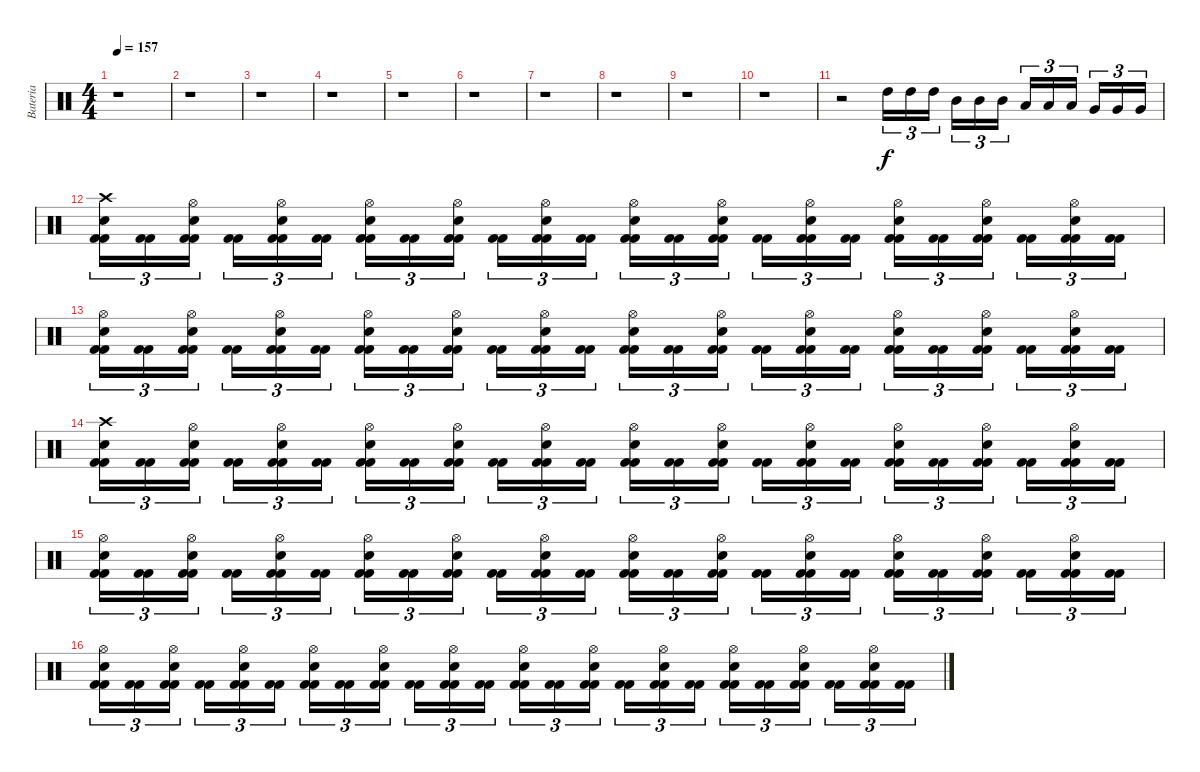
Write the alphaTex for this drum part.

\track ("Bateria" "Bateria") {instrument percussion}
\staff {score}
\articulation defaults
\ts (4 4)
\tempo 157
\clef neutral
\ks c
r.1{dy f} |
r.1 |
r.1 |
r.1 |
r.1 |
r.1 |
r.1 |
r.1 |
r.1 |
r.1 |
r.2 "High Tom (hit)".16{tu (3 2)} "High Tom (hit)".16{tu (3 2)} "High Tom (hit)".16{tu (3 2)} "Mid Tom (hit)".16{tu (3 2)} "Mid Tom (hit)".16{tu (3 2)} "Mid Tom (hit)".16{tu (3 2)} "Low Tom (hit)".16{tu (3 2)} "Low Tom (hit)".16{tu (3 2)} "Low Tom (hit)".16{tu (3 2)} "Very Low Tom (hit)".16{tu (3 2)} "Very Low Tom (hit)".16{tu (3 2)} "Very Low Tom (hit)".16{tu (3 2)} |
("Kick (hit) 2" "Kick (hit) 2" "Snare (hit) 2" "Crash high (hit)").16{tu (3 2)} ("Kick (hit) 2" "Kick (hit) 2").16{tu (3 2)} ("Kick (hit) 2" "Kick (hit) 2" "Snare (hit) 2" "Hi-Hat (open)").16{tu (3 2)} ("Kick (hit) 2" "Kick (hit) 2").16{tu (3 2)} ("Kick (hit) 2" "Kick (hit) 2" "Snare (hit) 2" "Hi-Hat (open)").16{tu (3 2)} ("Kick (hit) 2" "Kick (hit) 2").16{tu (3 2)} ("Kick (hit) 2" "Kick (hit) 2" "Snare (hit) 2" "Hi-Hat (open)").16{tu (3 2)} ("Kick (hit) 2" "Kick (hit) 2").16{tu (3 2)} ("Kick (hit) 2" "Kick (hit) 2" "Snare (hit) 2" "Hi-Hat (open)").16{tu (3 2)} ("Kick (hit) 2" "Kick (hit) 2").16{tu (3 2)} ("Kick (hit) 2" "Kick (hit) 2" "Snare (hit) 2" "Hi-Hat (open)").16{tu (3 2)} ("Kick (hit) 2" "Kick (hit) 2").16{tu (3 2)} ("Kick (hit) 2" "Kick (hit) 2" "Snare (hit) 2" "Hi-Hat (open)").16{tu (3 2)} ("Kick (hit) 2" "Kick (hit) 2").16{tu (3 2)} ("Kick (hit) 2" "Kick (hit) 2" "Snare (hit) 2" "Hi-Hat (open)").16{tu (3 2)} ("Kick (hit) 2" "Kick (hit) 2").16{tu (3 2)} ("Kick (hit) 2" "Kick (hit) 2" "Snare (hit) 2" "Hi-Hat (open)").16{tu (3 2)} ("Kick (hit) 2" "Kick (hit) 2").16{tu (3 2)} ("Kick (hit) 2" "Kick (hit) 2" "Snare (hit) 2" "Hi-Hat (open)").16{tu (3 2)} ("Kick (hit) 2" "Kick (hit) 2").16{tu (3 2)} ("Kick (hit) 2" "Kick (hit) 2" "Snare (hit) 2" "Hi-Hat (open)").16{tu (3 2)} ("Kick (hit) 2" "Kick (hit) 2").16{tu (3 2)} ("Kick (hit) 2" "Kick (hit) 2" "Snare (hit) 2" "Hi-Hat (open)").16{tu (3 2)} ("Kick (hit) 2" "Kick (hit) 2").16{tu (3 2)} |
("Kick (hit) 2" "Kick (hit) 2" "Snare (hit) 2" "Hi-Hat (open)").16{tu (3 2)} ("Kick (hit) 2" "Kick (hit) 2").16{tu (3 2)} ("Kick (hit) 2" "Kick (hit) 2" "Snare (hit) 2" "Hi-Hat (open)").16{tu (3 2)} ("Kick (hit) 2" "Kick (hit) 2").16{tu (3 2)} ("Kick (hit) 2" "Kick (hit) 2" "Snare (hit) 2" "Hi-Hat (open)").16{tu (3 2)} ("Kick (hit) 2" "Kick (hit) 2").16{tu (3 2)} ("Kick (hit) 2" "Kick (hit) 2" "Snare (hit) 2" "Hi-Hat (open)").16{tu (3 2)} ("Kick (hit) 2" "Kick (hit) 2").16{tu (3 2)} ("Kick (hit) 2" "Kick (hit) 2" "Snare (hit) 2" "Hi-Hat (open)").16{tu (3 2)} ("Kick (hit) 2" "Kick (hit) 2").16{tu (3 2)} ("Kick (hit) 2" "Kick (hit) 2" "Snare (hit) 2" "Hi-Hat (open)").16{tu (3 2)} ("Kick (hit) 2" "Kick (hit) 2").16{tu (3 2)} ("Kick (hit) 2" "Kick (hit) 2" "Snare (hit) 2" "Hi-Hat (open)").16{tu (3 2)} ("Kick (hit) 2" "Kick (hit) 2").16{tu (3 2)} ("Kick (hit) 2" "Kick (hit) 2" "Snare (hit) 2" "Hi-Hat (open)").16{tu (3 2)} ("Kick (hit) 2" "Kick (hit) 2").16{tu (3 2)} ("Kick (hit) 2" "Kick (hit) 2" "Snare (hit) 2" "Hi-Hat (open)").16{tu (3 2)} ("Kick (hit) 2" "Kick (hit) 2").16{tu (3 2)} ("Kick (hit) 2" "Kick (hit) 2" "Snare (hit) 2" "Hi-Hat (open)").16{tu (3 2)} ("Kick (hit) 2" "Kick (hit) 2").16{tu (3 2)} ("Kick (hit) 2" "Kick (hit) 2" "Snare (hit) 2" "Hi-Hat (open)").16{tu (3 2)} ("Kick (hit) 2" "Kick (hit) 2").16{tu (3 2)} ("Kick (hit) 2" "Kick (hit) 2" "Snare (hit) 2" "Hi-Hat (open)").16{tu (3 2)} ("Kick (hit) 2" "Kick (hit) 2").16{tu (3 2)} |
("Kick (hit) 2" "Kick (hit) 2" "Snare (hit) 2" "Crash high (hit)").16{tu (3 2)} ("Kick (hit) 2" "Kick (hit) 2").16{tu (3 2)} ("Kick (hit) 2" "Kick (hit) 2" "Snare (hit) 2" "Hi-Hat (open)").16{tu (3 2)} ("Kick (hit) 2" "Kick (hit) 2").16{tu (3 2)} ("Kick (hit) 2" "Kick (hit) 2" "Snare (hit) 2" "Hi-Hat (open)").16{tu (3 2)} ("Kick (hit) 2" "Kick (hit) 2").16{tu (3 2)} ("Kick (hit) 2" "Kick (hit) 2" "Snare (hit) 2" "Hi-Hat (open)").16{tu (3 2)} ("Kick (hit) 2" "Kick (hit) 2").16{tu (3 2)} ("Kick (hit) 2" "Kick (hit) 2" "Snare (hit) 2" "Hi-Hat (open)").16{tu (3 2)} ("Kick (hit) 2" "Kick (hit) 2").16{tu (3 2)} ("Kick (hit) 2" "Kick (hit) 2" "Snare (hit) 2" "Hi-Hat (open)").16{tu (3 2)} ("Kick (hit) 2" "Kick (hit) 2").16{tu (3 2)} ("Kick (hit) 2" "Kick (hit) 2" "Snare (hit) 2" "Hi-Hat (open)").16{tu (3 2)} ("Kick (hit) 2" "Kick (hit) 2").16{tu (3 2)} ("Kick (hit) 2" "Kick (hit) 2" "Snare (hit) 2" "Hi-Hat (open)").16{tu (3 2)} ("Kick (hit) 2" "Kick (hit) 2").16{tu (3 2)} ("Kick (hit) 2" "Kick (hit) 2" "Snare (hit) 2" "Hi-Hat (open)").16{tu (3 2)} ("Kick (hit) 2" "Kick (hit) 2").16{tu (3 2)} ("Kick (hit) 2" "Kick (hit) 2" "Snare (hit) 2" "Hi-Hat (open)").16{tu (3 2)} ("Kick (hit) 2" "Kick (hit) 2").16{tu (3 2)} ("Kick (hit) 2" "Kick (hit) 2" "Snare (hit) 2" "Hi-Hat (open)").16{tu (3 2)} ("Kick (hit) 2" "Kick (hit) 2").16{tu (3 2)} ("Kick (hit) 2" "Kick (hit) 2" "Snare (hit) 2" "Hi-Hat (open)").16{tu (3 2)} ("Kick (hit) 2" "Kick (hit) 2").16{tu (3 2)} |
("Kick (hit) 2" "Kick (hit) 2" "Snare (hit) 2" "Hi-Hat (open)").16{tu (3 2)} ("Kick (hit) 2" "Kick (hit) 2").16{tu (3 2)} ("Kick (hit) 2" "Kick (hit) 2" "Snare (hit) 2" "Hi-Hat (open)").16{tu (3 2)} ("Kick (hit) 2" "Kick (hit) 2").16{tu (3 2)} ("Kick (hit) 2" "Kick (hit) 2" "Snare (hit) 2" "Hi-Hat (open)").16{tu (3 2)} ("Kick (hit) 2" "Kick (hit) 2").16{tu (3 2)} ("Kick (hit) 2" "Kick (hit) 2" "Snare (hit) 2" "Hi-Hat (open)").16{tu (3 2)} ("Kick (hit) 2" "Kick (hit) 2").16{tu (3 2)} ("Kick (hit) 2" "Kick (hit) 2" "Snare (hit) 2" "Hi-Hat (open)").16{tu (3 2)} ("Kick (hit) 2" "Kick (hit) 2").16{tu (3 2)} ("Kick (hit) 2" "Kick (hit) 2" "Snare (hit) 2" "Hi-Hat (open)").16{tu (3 2)} ("Kick (hit) 2" "Kick (hit) 2").16{tu (3 2)} ("Kick (hit) 2" "Kick (hit) 2" "Snare (hit) 2" "Hi-Hat (open)").16{tu (3 2)} ("Kick (hit) 2" "Kick (hit) 2").16{tu (3 2)} ("Kick (hit) 2" "Kick (hit) 2" "Snare (hit) 2" "Hi-Hat (open)").16{tu (3 2)} ("Kick (hit) 2" "Kick (hit) 2").16{tu (3 2)} ("Kick (hit) 2" "Kick (hit) 2" "Snare (hit) 2" "Hi-Hat (open)").16{tu (3 2)} ("Kick (hit) 2" "Kick (hit) 2").16{tu (3 2)} ("Kick (hit) 2" "Kick (hit) 2" "Snare (hit) 2" "Hi-Hat (open)").16{tu (3 2)} ("Kick (hit) 2" "Kick (hit) 2").16{tu (3 2)} ("Kick (hit) 2" "Kick (hit) 2" "Snare (hit) 2" "Hi-Hat (open)").16{tu (3 2)} ("Kick (hit) 2" "Kick (hit) 2").16{tu (3 2)} ("Kick (hit) 2" "Kick (hit) 2" "Snare (hit) 2" "Hi-Hat (open)").16{tu (3 2)} ("Kick (hit) 2" "Kick (hit) 2").16{tu (3 2)} |
("Kick (hit) 2" "Kick (hit) 2" "Snare (hit) 2" "Hi-Hat (open)").16{tu (3 2)} ("Kick (hit) 2" "Kick (hit) 2").16{tu (3 2)} ("Kick (hit) 2" "Kick (hit) 2" "Snare (hit) 2" "Hi-Hat (open)").16{tu (3 2)} ("Kick (hit) 2" "Kick (hit) 2").16{tu (3 2)} ("Kick (hit) 2" "Kick (hit) 2" "Snare (hit) 2" "Hi-Hat (open)").16{tu (3 2)} ("Kick (hit) 2" "Kick (hit) 2").16{tu (3 2)} ("Kick (hit) 2" "Kick (hit) 2" "Snare (hit) 2" "Hi-Hat (open)").16{tu (3 2)} ("Kick (hit) 2" "Kick (hit) 2").16{tu (3 2)} ("Kick (hit) 2" "Kick (hit) 2" "Snare (hit) 2" "Hi-Hat (open)").16{tu (3 2)} ("Kick (hit) 2" "Kick (hit) 2").16{tu (3 2)} ("Kick (hit) 2" "Kick (hit) 2" "Snare (hit) 2" "Hi-Hat (open)").16{tu (3 2)} ("Kick (hit) 2" "Kick (hit) 2").16{tu (3 2)} ("Kick (hit) 2" "Kick (hit) 2" "Snare (hit) 2" "Hi-Hat (open)").16{tu (3 2)} ("Kick (hit) 2" "Kick (hit) 2").16{tu (3 2)} ("Kick (hit) 2" "Kick (hit) 2" "Snare (hit) 2" "Hi-Hat (open)").16{tu (3 2)} ("Kick (hit) 2" "Kick (hit) 2").16{tu (3 2)} ("Kick (hit) 2" "Kick (hit) 2" "Snare (hit) 2" "Hi-Hat (open)").16{tu (3 2)} ("Kick (hit) 2" "Kick (hit) 2").16{tu (3 2)} ("Kick (hit) 2" "Kick (hit) 2" "Snare (hit) 2" "Hi-Hat (open)").16{tu (3 2)} ("Kick (hit) 2" "Kick (hit) 2").16{tu (3 2)} ("Kick (hit) 2" "Kick (hit) 2" "Snare (hit) 2" "Hi-Hat (open)").16{tu (3 2)} ("Kick (hit) 2" "Kick (hit) 2").16{tu (3 2)} ("Kick (hit) 2" "Kick (hit) 2" "Snare (hit) 2" "Hi-Hat (open)").16{tu (3 2)} ("Kick (hit) 2" "Kick (hit) 2").16{tu (3 2)}
